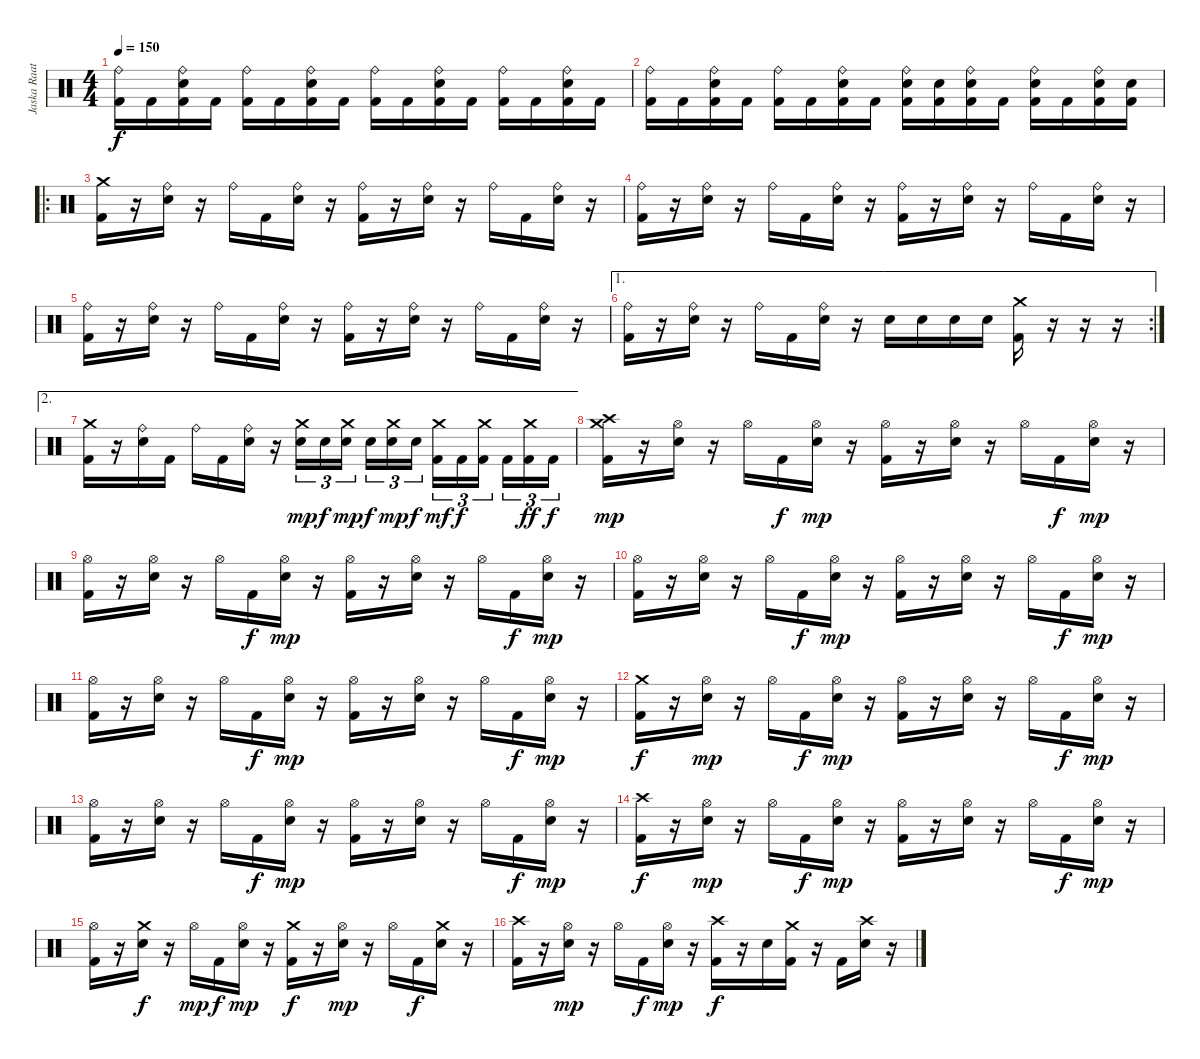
\track ("Jaska Raatikainen" "Jaska Raat") {instrument percussion}
\staff {score}
\articulation defaults
\ts (4 4)
\tempo 150
\clef neutral
\ks c
("Ride (bell)" "Kick (hit) 2").16{dy f} "Kick (hit) 2".16 ("Ride (bell)" "Electric Snare (hit)" "Kick (hit) 2").16 "Kick (hit) 2".16 ("Ride (bell)" "Kick (hit) 2").16 "Kick (hit) 2".16 ("Ride (bell)" "Electric Snare (hit)" "Kick (hit) 2").16 "Kick (hit) 2".16 ("Ride (bell)" "Kick (hit) 2").16 "Kick (hit) 2".16 ("Ride (bell)" "Electric Snare (hit)" "Kick (hit) 2").16 "Kick (hit) 2".16 ("Ride (bell)" "Kick (hit) 2").16 "Kick (hit) 2".16 ("Ride (bell)" "Electric Snare (hit)" "Kick (hit) 2").16 "Kick (hit) 2".16 |
("Ride (bell)" "Kick (hit) 2").16 "Kick (hit) 2".16 ("Ride (bell)" "Electric Snare (hit)" "Kick (hit) 2").16 "Kick (hit) 2".16 ("Ride (bell)" "Kick (hit) 2").16 "Kick (hit) 2".16 ("Ride (bell)" "Electric Snare (hit)" "Kick (hit) 2").16 "Kick (hit) 2".16 ("Ride (bell)" "Electric Snare (hit)" "Kick (hit) 2").16 ("Electric Snare (hit)" "Kick (hit) 2").16 ("Ride (bell)" "Electric Snare (hit)" "Kick (hit) 2").16 "Kick (hit) 2".16 ("Ride (bell)" "Electric Snare (hit)" "Kick (hit) 2").16 "Kick (hit) 2".16 ("Ride (bell)" "Electric Snare (hit)" "Kick (hit) 2").16 ("Electric Snare (hit)" "Kick (hit) 2").16 |
\ro
("Crash medium (hit)" "Kick (hit) 2").16 r.16 ("Ride (bell)" "Electric Snare (hit)").16 r.16 "Ride (bell)".16 "Kick (hit) 2".16 ("Ride (bell)" "Electric Snare (hit)").16 r.16 ("Ride (bell)" "Kick (hit) 2").16 r.16 ("Ride (bell)" "Electric Snare (hit)").16 r.16 "Ride (bell)".16 "Kick (hit) 2".16 ("Ride (bell)" "Electric Snare (hit)").16 r.16 |
("Ride (bell)" "Kick (hit) 2").16 r.16 ("Ride (bell)" "Electric Snare (hit)").16 r.16 "Ride (bell)".16 "Kick (hit) 2".16 ("Ride (bell)" "Electric Snare (hit)").16 r.16 ("Ride (bell)" "Kick (hit) 2").16 r.16 ("Ride (bell)" "Electric Snare (hit)").16 r.16 "Ride (bell)".16 "Kick (hit) 2".16 ("Ride (bell)" "Electric Snare (hit)").16 r.16 |
("Ride (bell)" "Kick (hit) 2").16 r.16 ("Ride (bell)" "Electric Snare (hit)").16 r.16 "Ride (bell)".16 "Kick (hit) 2".16 ("Ride (bell)" "Electric Snare (hit)").16 r.16 ("Ride (bell)" "Kick (hit) 2").16 r.16 ("Ride (bell)" "Electric Snare (hit)").16 r.16 "Ride (bell)".16 "Kick (hit) 2".16 ("Ride (bell)" "Electric Snare (hit)").16 r.16 |
\ae 1
\rc 2
("Ride (bell)" "Kick (hit) 2").16 r.16 ("Ride (bell)" "Electric Snare (hit)").16 r.16 "Ride (bell)".16 "Kick (hit) 2".16 ("Ride (bell)" "Electric Snare (hit)").16 r.16 "Electric Snare (hit)".16 "Electric Snare (hit)".16 "Electric Snare (hit)".16 "Electric Snare (hit)".16 ("Crash medium (hit)" "Kick (hit) 2").16 r.16 r.16 r.16 |
\ae 2
("Crash medium (hit)" "Kick (hit) 2").16 r.16 ("Ride (bell)" "Electric Snare (hit)").16 "Kick (hit) 2".16 "Ride (bell)".16 "Kick (hit) 2".16 ("Ride (bell)" "Electric Snare (hit)").16 r.16 ("Crash medium (hit)" "Electric Snare (hit)").16{tu (3 2) dy mp} "Electric Snare (hit)".16{tu (3 2) dy f} ("Crash medium (hit)" "Electric Snare (hit)").16{tu (3 2) dy mp} "Electric Snare (hit)".16{tu (3 2) dy f} ("Crash medium (hit)" "Electric Snare (hit)").16{tu (3 2) dy mp} "Electric Snare (hit)".16{tu (3 2) dy f} ("Crash medium (hit)" "Kick (hit) 2").16{tu (3 2) dy mf} "Kick (hit) 2".16{tu (3 2) dy f} ("Crash medium (hit)" "Kick (hit) 2").16{tu (3 2)} "Kick (hit) 2".16{tu (3 2)} ("Crash medium (hit)" "Kick (hit) 2").16{tu (3 2) dy ff} "Kick (hit) 2".16{tu (3 2) dy f} |
("Crash medium (hit)" "Crash high (hit)" "Kick (hit) 2").16{dy mp} r.16 ("Hi-Hat (open)" "Electric Snare (hit)").16 r.16 "Hi-Hat (open)".16 "Kick (hit) 2".16{dy f} ("Hi-Hat (open)" "Electric Snare (hit)").16{dy mp} r.16 ("Hi-Hat (open)" "Kick (hit) 2").16 r.16 ("Hi-Hat (open)" "Electric Snare (hit)").16 r.16 "Hi-Hat (open)".16 "Kick (hit) 2".16{dy f} ("Hi-Hat (open)" "Electric Snare (hit)").16{dy mp} r.16 |
("Hi-Hat (open)" "Kick (hit) 2").16 r.16 ("Hi-Hat (open)" "Electric Snare (hit)").16 r.16 "Hi-Hat (open)".16 "Kick (hit) 2".16{dy f} ("Hi-Hat (open)" "Electric Snare (hit)").16{dy mp} r.16 ("Hi-Hat (open)" "Kick (hit) 2").16 r.16 ("Hi-Hat (open)" "Electric Snare (hit)").16 r.16 "Hi-Hat (open)".16 "Kick (hit) 2".16{dy f} ("Hi-Hat (open)" "Electric Snare (hit)").16{dy mp} r.16 |
("Hi-Hat (open)" "Kick (hit) 2").16 r.16 ("Hi-Hat (open)" "Electric Snare (hit)").16 r.16 "Hi-Hat (open)".16 "Kick (hit) 2".16{dy f} ("Hi-Hat (open)" "Electric Snare (hit)").16{dy mp} r.16 ("Hi-Hat (open)" "Kick (hit) 2").16 r.16 ("Hi-Hat (open)" "Electric Snare (hit)").16 r.16 "Hi-Hat (open)".16 "Kick (hit) 2".16{dy f} ("Hi-Hat (open)" "Electric Snare (hit)").16{dy mp} r.16 |
("Hi-Hat (open)" "Kick (hit) 2").16 r.16 ("Hi-Hat (open)" "Electric Snare (hit)").16 r.16 "Hi-Hat (open)".16 "Kick (hit) 2".16{dy f} ("Hi-Hat (open)" "Electric Snare (hit)").16{dy mp} r.16 ("Hi-Hat (open)" "Kick (hit) 2").16 r.16 ("Hi-Hat (open)" "Electric Snare (hit)").16 r.16 "Hi-Hat (open)".16 "Kick (hit) 2".16{dy f} ("Hi-Hat (open)" "Electric Snare (hit)").16{dy mp} r.16 |
("Crash medium (hit)" "Kick (hit) 2").16{dy f} r.16 ("Hi-Hat (open)" "Electric Snare (hit)").16{dy mp} r.16 "Hi-Hat (open)".16 "Kick (hit) 2".16{dy f} ("Hi-Hat (open)" "Electric Snare (hit)").16{dy mp} r.16 ("Hi-Hat (open)" "Kick (hit) 2").16 r.16 ("Hi-Hat (open)" "Electric Snare (hit)").16 r.16 "Hi-Hat (open)".16 "Kick (hit) 2".16{dy f} ("Hi-Hat (open)" "Electric Snare (hit)").16{dy mp} r.16 |
("Hi-Hat (open)" "Kick (hit) 2").16 r.16 ("Hi-Hat (open)" "Electric Snare (hit)").16 r.16 "Hi-Hat (open)".16 "Kick (hit) 2".16{dy f} ("Hi-Hat (open)" "Electric Snare (hit)").16{dy mp} r.16 ("Hi-Hat (open)" "Kick (hit) 2").16 r.16 ("Hi-Hat (open)" "Electric Snare (hit)").16 r.16 "Hi-Hat (open)".16 "Kick (hit) 2".16{dy f} ("Hi-Hat (open)" "Electric Snare (hit)").16{dy mp} r.16 |
("Crash high (hit)" "Kick (hit) 2").16{dy f} r.16 ("Hi-Hat (open)" "Electric Snare (hit)").16{dy mp} r.16 "Hi-Hat (open)".16 "Kick (hit) 2".16{dy f} ("Hi-Hat (open)" "Electric Snare (hit)").16{dy mp} r.16 ("Hi-Hat (open)" "Kick (hit) 2").16 r.16 ("Hi-Hat (open)" "Electric Snare (hit)").16 r.16 "Hi-Hat (open)".16 "Kick (hit) 2".16{dy f} ("Hi-Hat (open)" "Electric Snare (hit)").16{dy mp} r.16 |
("Hi-Hat (open)" "Kick (hit) 2").16 r.16 ("Crash medium (hit)" "Electric Snare (hit)").16{dy f} r.16 "Hi-Hat (open)".16{dy mp} "Kick (hit) 2".16{dy f} ("Hi-Hat (open)" "Electric Snare (hit)").16{dy mp} r.16 ("Crash medium (hit)" "Kick (hit) 2").16{dy f} r.16 ("Hi-Hat (open)" "Electric Snare (hit)").16{dy mp} r.16 "Hi-Hat (open)".16 "Kick (hit) 2".16{dy f} ("Crash medium (hit)" "Electric Snare (hit)").16 r.16 |
("Crash high (hit)" "Kick (hit) 2").16 r.16 ("Hi-Hat (open)" "Electric Snare (hit)").16{dy mp} r.16 "Hi-Hat (open)".16 "Kick (hit) 2".16{dy f} ("Hi-Hat (open)" "Electric Snare (hit)").16{dy mp} r.16 ("Crash high (hit)" "Kick (hit) 2").16{dy f} r.16 "Electric Snare (hit)".16 ("Crash medium (hit)" "Kick (hit) 2").16 r.16 "Kick (hit) 2".16 ("Crash high (hit)" "Electric Snare (hit)").16 r.16
